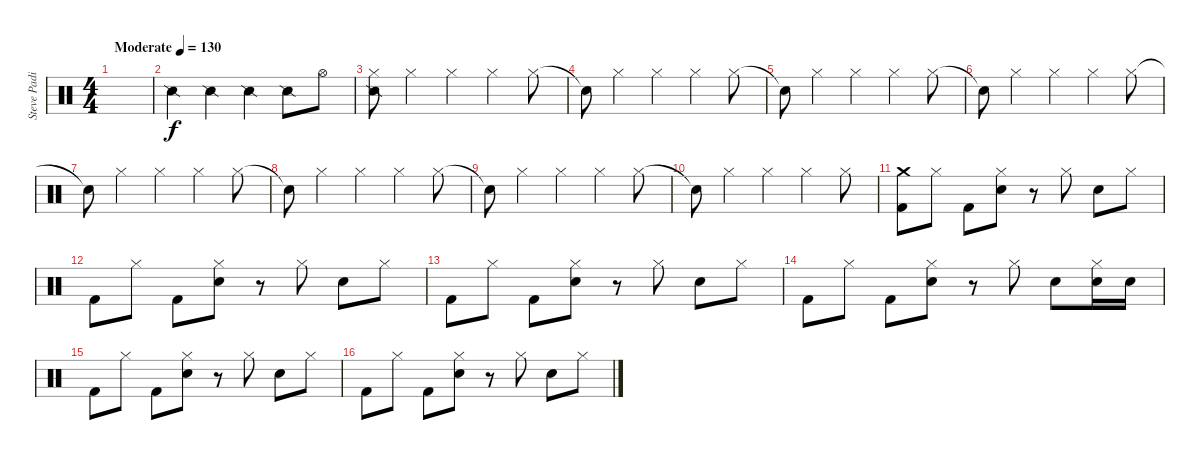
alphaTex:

\track ("Steve Padin" "Steve Padi") {instrument percussion}
\staff {score}
\articulation defaults
\ts (4 4)
\tempo (130 "Moderate")
\clef neutral
\ks c
|
"Snare (side stick) 2".4 "Snare (side stick) 2".4 "Snare (side stick) 2".4 "Snare (side stick) 2".8 "Hi-Hat (open)".8 |
("Snare (side stick) 2" "Hi-Hat (closed)").8 "Hi-Hat (closed)".4 "Hi-Hat (closed)".4 "Hi-Hat (closed)".4 "Hi-Hat (closed)".8 |
"Snare (hit)"{t}.8 "Hi-Hat (closed)".4 "Hi-Hat (closed)".4 "Hi-Hat (closed)".4 "Hi-Hat (closed)".8 |
"Snare (hit)"{t}.8 "Hi-Hat (closed)".4 "Hi-Hat (closed)".4 "Hi-Hat (closed)".4 "Hi-Hat (closed)".8 |
"Snare (hit)"{t}.8 "Hi-Hat (closed)".4 "Hi-Hat (closed)".4 "Hi-Hat (closed)".4 "Hi-Hat (closed)".8 |
"Snare (hit)"{t}.8 "Hi-Hat (closed)".4 "Hi-Hat (closed)".4 "Hi-Hat (closed)".4 "Hi-Hat (closed)".8 |
"Snare (hit)"{t}.8 "Hi-Hat (closed)".4 "Hi-Hat (closed)".4 "Hi-Hat (closed)".4 "Hi-Hat (closed)".8 |
"Snare (hit)"{t}.8 "Hi-Hat (closed)".4 "Hi-Hat (closed)".4 "Hi-Hat (closed)".4 "Hi-Hat (closed)".8 |
"Snare (hit)"{t}.8 "Hi-Hat (closed)".4 "Hi-Hat (closed)".4 "Hi-Hat (closed)".4 "Hi-Hat (closed)".8 |
("Crash medium (hit)" "Kick (hit) 2").8 "Hi-Hat (closed)".8 "Kick (hit) 2".8 ("Hi-Hat (closed)" "Electric Snare (hit)").8 r.8 "Hi-Hat (closed)".8 "Electric Snare (hit)".8 "Hi-Hat (closed)".8 |
"Kick (hit) 2".8 "Hi-Hat (closed)".8 "Kick (hit) 2".8 ("Hi-Hat (closed)" "Electric Snare (hit)").8 r.8 "Hi-Hat (closed)".8 "Electric Snare (hit)".8 "Hi-Hat (closed)".8 |
"Kick (hit) 2".8 "Hi-Hat (closed)".8 "Kick (hit) 2".8 ("Hi-Hat (closed)" "Electric Snare (hit)").8 r.8 "Hi-Hat (closed)".8 "Electric Snare (hit)".8 "Hi-Hat (closed)".8 |
"Kick (hit) 2".8 "Hi-Hat (closed)".8 "Kick (hit) 2".8 ("Hi-Hat (closed)" "Electric Snare (hit)").8 r.8 "Hi-Hat (closed)".8 "Electric Snare (hit)".8 ("Hi-Hat (closed)" "Electric Snare (hit)").16 "Electric Snare (hit)".16 |
"Kick (hit) 2".8 "Hi-Hat (closed)".8 "Kick (hit) 2".8 ("Hi-Hat (closed)" "Electric Snare (hit)").8 r.8 "Hi-Hat (closed)".8 "Electric Snare (hit)".8 "Hi-Hat (closed)".8 |
"Kick (hit) 2".8 "Hi-Hat (closed)".8 "Kick (hit) 2".8 ("Hi-Hat (closed)" "Electric Snare (hit)").8 r.8 "Hi-Hat (closed)".8 "Electric Snare (hit)".8 "Hi-Hat (closed)".8
